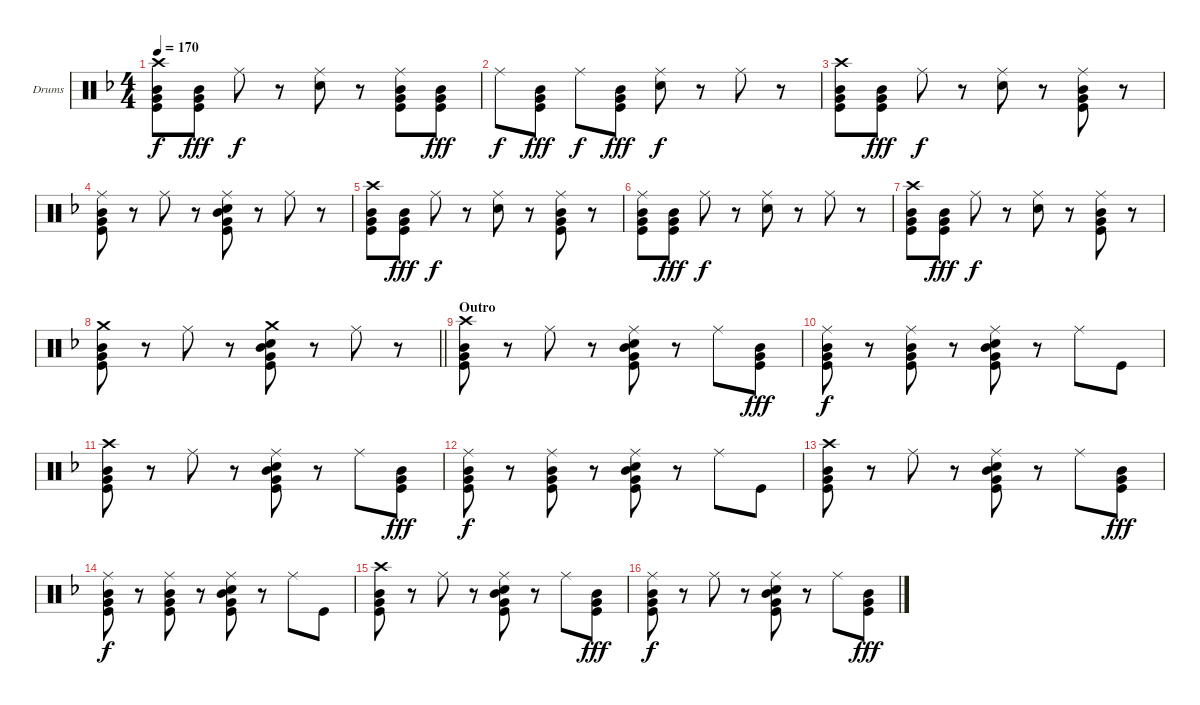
\bracketExtendMode groupsimilarinstruments
\firstSystemTrackNameOrientation horizontal
\otherSystemsTrackNameOrientation horizontal
\track ("Drumkit" "Drums") {instrument percussion}
\staff {score}
\articulation defaults
\ts (4 4)
\tempo 170
\clef neutral
\scale
0.324074
\ks dminor
("Crash high (hit)" "Mid Tom (hit)" "Very Low Tom (hit)" "Kick (hit)").8{dy f} ("Mid Tom (hit)" "Very Low Tom (hit)" "Kick (hit)").8{dy fff} "Ride (middle)".8{dy f} r.8 ("Ride (middle)" "Snare (hit) 2").8 r.8 ("Ride (middle)" "Mid Tom (hit)" "Very Low Tom (hit)" "Kick (hit)").8 ("Mid Tom (hit)" "Very Low Tom (hit)" "Kick (hit)").8{dy fff} |
\scale
0.324074 "Ride (middle)".8{dy f} ("Mid Tom (hit)" "Very Low Tom (hit)" "Kick (hit)").8{dy fff} "Ride (middle)".8{dy f} ("Mid Tom (hit)" "Kick (hit)" "Very Low Tom (hit)").8{dy fff} ("Ride (middle)" "Snare (hit) 2").8{dy f} r.8 "Ride (middle)".8 r.8 |
\scale
0.324074 ("Crash high (hit)" "Mid Tom (hit)" "Very Low Tom (hit)" "Kick (hit)").8 ("Mid Tom (hit)" "Very Low Tom (hit)" "Kick (hit)").8{dy fff} "Ride (middle)".8{dy f} r.8 ("Ride (middle)" "Snare (hit) 2").8 r.8 ("Ride (middle)" "Mid Tom (hit)" "Very Low Tom (hit)" "Kick (hit)").8 r.8 |
\scale
0.351852 ("Ride (middle)" "Mid Tom (hit)" "Very Low Tom (hit)" "Kick (hit)").8 r.8 "Ride (middle)".8 r.8 ("Ride (middle)" "Snare (hit) 2" "Mid Tom (hit)" "Very Low Tom (hit)" "Kick (hit)").8 r.8 "Ride (middle)".8 r.8 |
\scale
0.324074 ("Crash high (hit)" "Mid Tom (hit)" "Very Low Tom (hit)" "Kick (hit)").8 ("Mid Tom (hit)" "Very Low Tom (hit)" "Kick (hit)").8{dy fff} "Ride (middle)".8{dy f} r.8 ("Ride (middle)" "Snare (hit) 2").8 r.8 ("Ride (middle)" "Mid Tom (hit)" "Very Low Tom (hit)" "Kick (hit)").8 r.8 |
\scale
0.324074 ("Ride (middle)" "Mid Tom (hit)" "Very Low Tom (hit)" "Kick (hit)").8 ("Mid Tom (hit)" "Very Low Tom (hit)" "Kick (hit)").8{dy fff} "Ride (middle)".8{dy f} r.8 ("Ride (middle)" "Snare (hit) 2").8 r.8 "Ride (middle)".8 r.8 |
\scale
0.324074 ("Crash high (hit)" "Mid Tom (hit)" "Very Low Tom (hit)" "Kick (hit)").8 ("Mid Tom (hit)" "Very Low Tom (hit)" "Kick (hit)").8{dy fff} "Ride (middle)".8{dy f} r.8 ("Ride (middle)" "Snare (hit) 2").8 r.8 ("Ride (middle)" "Mid Tom (hit)" "Very Low Tom (hit)" "Kick (hit)").8 r.8 |
\scale
0.351852
\barLineRight lightlight
("Crash medium (hit)" "Mid Tom (hit)" "Very Low Tom (hit)" "Kick (hit)").8 r.8 "Ride (middle)".8 r.8 ("Crash medium (hit)" "Snare (hit) 2" "Mid Tom (hit)" "Very Low Tom (hit)" "Kick (hit)").8 r.8 "Ride (middle)".8 r.8 |
\section ("" "Outro")
\scale
0.333333 ("Crash high (hit)" "Mid Tom (hit)" "Very Low Tom (hit)" "Kick (hit)").8 r.8 "Ride (middle)".8 r.8 ("Ride (middle)" "Snare (hit) 2" "Mid Tom (hit)" "Very Low Tom (hit)" "Kick (hit)").8 r.8 "Ride (middle)".8 ("Mid Tom (hit)" "Very Low Tom (hit)" "Kick (hit)").8{dy fff} |
\scale
0.333333 ("Ride (middle)" "Mid Tom (hit)" "Very Low Tom (hit)" "Kick (hit)").8{dy f} r.8 ("Ride (middle)" "Mid Tom (hit)" "Very Low Tom (hit)" "Kick (hit)").8 r.8 ("Ride (middle)" "Snare (hit) 2" "Mid Tom (hit)" "Very Low Tom (hit)" "Kick (hit)").8 r.8 "Ride (middle)".8 "Kick (hit)".8 |
\scale
0.333333 ("Crash high (hit)" "Mid Tom (hit)" "Very Low Tom (hit)" "Kick (hit)").8 r.8 "Ride (middle)".8 r.8 ("Ride (middle)" "Snare (hit) 2" "Mid Tom (hit)" "Very Low Tom (hit)" "Kick (hit)").8 r.8 "Ride (middle)".8 ("Mid Tom (hit)" "Very Low Tom (hit)" "Kick (hit)").8{dy fff} |
\scale
0.333333 ("Ride (middle)" "Mid Tom (hit)" "Very Low Tom (hit)" "Kick (hit)").8{dy f} r.8 ("Ride (middle)" "Mid Tom (hit)" "Very Low Tom (hit)" "Kick (hit)").8 r.8 ("Ride (middle)" "Snare (hit) 2" "Mid Tom (hit)" "Very Low Tom (hit)" "Kick (hit)").8 r.8 "Ride (middle)".8 "Kick (hit)".8 |
\scale
0.333333 ("Crash high (hit)" "Mid Tom (hit)" "Very Low Tom (hit)" "Kick (hit)").8 r.8 "Ride (middle)".8 r.8 ("Ride (middle)" "Snare (hit) 2" "Mid Tom (hit)" "Very Low Tom (hit)" "Kick (hit)").8 r.8 "Ride (middle)".8 ("Mid Tom (hit)" "Very Low Tom (hit)" "Kick (hit)").8{dy fff} |
\scale
0.333333 ("Ride (middle)" "Mid Tom (hit)" "Very Low Tom (hit)" "Kick (hit)").8{dy f} r.8 ("Ride (middle)" "Mid Tom (hit)" "Very Low Tom (hit)" "Kick (hit)").8 r.8 ("Ride (middle)" "Snare (hit) 2" "Mid Tom (hit)" "Very Low Tom (hit)" "Kick (hit)").8 r.8 "Ride (middle)".8 "Kick (hit)".8 |
\scale
0.43379 ("Crash high (hit)" "Mid Tom (hit)" "Very Low Tom (hit)" "Kick (hit)").8 r.8 "Ride (middle)".8 r.8 ("Ride (middle)" "Snare (hit) 2" "Mid Tom (hit)" "Very Low Tom (hit)" "Kick (hit)").8 r.8 "Ride (middle)".8 ("Mid Tom (hit)" "Very Low Tom (hit)" "Kick (hit)").8{dy fff} |
\scale
0.43379 ("Ride (middle)" "Mid Tom (hit)" "Very Low Tom (hit)" "Kick (hit)").8{dy f} r.8 "Ride (middle)".8 r.8 ("Ride (middle)" "Snare (hit) 2" "Mid Tom (hit)" "Very Low Tom (hit)" "Kick (hit)").8 r.8 "Ride (middle)".8 ("Mid Tom (hit)" "Very Low Tom (hit)" "Kick (hit)").8{dy fff}
